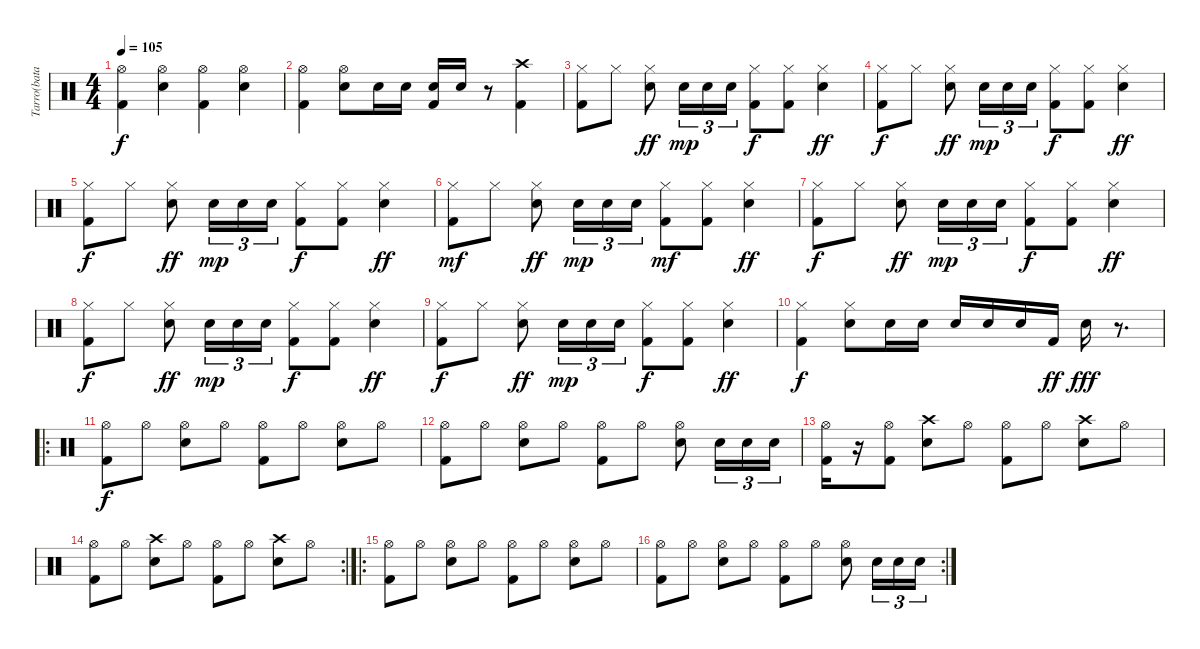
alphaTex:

\track ("Tarro(bataca)" "Tarro(bata") {instrument percussion}
\staff {score}
\articulation defaults
\ts (4 4)
\tempo 105
\clef neutral
\ks c
("Hi-Hat (open)" "Kick (hit) 2").4{dy f} ("Hi-Hat (open)" "Snare (hit) 2").4 ("Hi-Hat (open)" "Kick (hit) 2").4 ("Hi-Hat (open)" "Snare (hit) 2").4 |
("Hi-Hat (open)" "Kick (hit) 2").4 ("Hi-Hat (open)" "Snare (hit) 2").8 "Snare (hit) 2".16 "Snare (hit) 2".16 ("Snare (hit) 2" "Kick (hit) 2").16 "Snare (hit) 2".16 r.8 ("Crash high (hit)" "Kick (hit) 2").4 |
("Hi-Hat (closed)" "Kick (hit) 2").8 "Hi-Hat (closed)".8 ("Hi-Hat (closed)" "Snare (hit) 2").8{dy ff} "Snare (hit) 2".16{tu (3 2) dy mp} "Snare (hit) 2".16{tu (3 2)} "Snare (hit) 2".16{tu (3 2)} ("Hi-Hat (closed)" "Kick (hit) 2").8{dy f} ("Hi-Hat (closed)" "Kick (hit) 2").8 ("Hi-Hat (closed)" "Snare (hit) 2").4{dy ff} |
("Hi-Hat (closed)" "Kick (hit) 2").8{dy f} "Hi-Hat (closed)".8 ("Hi-Hat (closed)" "Snare (hit) 2").8{dy ff} "Snare (hit) 2".16{tu (3 2) dy mp} "Snare (hit) 2".16{tu (3 2)} "Snare (hit) 2".16{tu (3 2)} ("Hi-Hat (closed)" "Kick (hit) 2").8{dy f} ("Hi-Hat (closed)" "Kick (hit) 2").8 ("Hi-Hat (closed)" "Snare (hit) 2").4{dy ff} |
("Hi-Hat (closed)" "Kick (hit) 2").8{dy f} "Hi-Hat (closed)".8 ("Hi-Hat (closed)" "Snare (hit) 2").8{dy ff} "Snare (hit) 2".16{tu (3 2) dy mp} "Snare (hit) 2".16{tu (3 2)} "Snare (hit) 2".16{tu (3 2)} ("Hi-Hat (closed)" "Kick (hit) 2").8{dy f} ("Hi-Hat (closed)" "Kick (hit) 2").8 ("Hi-Hat (closed)" "Snare (hit) 2").4{dy ff} |
("Hi-Hat (closed)" "Kick (hit) 2").8{dy mf} "Hi-Hat (closed)".8 ("Hi-Hat (closed)" "Snare (hit) 2").8{dy ff} "Snare (hit) 2".16{tu (3 2) dy mp} "Snare (hit) 2".16{tu (3 2)} "Snare (hit) 2".16{tu (3 2)} ("Hi-Hat (closed)" "Kick (hit) 2").8{dy mf} ("Hi-Hat (closed)" "Kick (hit) 2").8 ("Hi-Hat (closed)" "Snare (hit) 2").4{dy ff} |
("Hi-Hat (closed)" "Kick (hit) 2").8{dy f} "Hi-Hat (closed)".8 ("Hi-Hat (closed)" "Snare (hit) 2").8{dy ff} "Snare (hit) 2".16{tu (3 2) dy mp} "Snare (hit) 2".16{tu (3 2)} "Snare (hit) 2".16{tu (3 2)} ("Hi-Hat (closed)" "Kick (hit) 2").8{dy f} ("Hi-Hat (closed)" "Kick (hit) 2").8 ("Hi-Hat (closed)" "Snare (hit) 2").4{dy ff} |
("Hi-Hat (closed)" "Kick (hit) 2").8{dy f} "Hi-Hat (closed)".8 ("Hi-Hat (closed)" "Snare (hit) 2").8{dy ff} "Snare (hit) 2".16{tu (3 2) dy mp} "Snare (hit) 2".16{tu (3 2)} "Snare (hit) 2".16{tu (3 2)} ("Hi-Hat (closed)" "Kick (hit) 2").8{dy f} ("Hi-Hat (closed)" "Kick (hit) 2").8 ("Hi-Hat (closed)" "Snare (hit) 2").4{dy ff} |
("Hi-Hat (closed)" "Kick (hit) 2").8{dy f} "Hi-Hat (closed)".8 ("Hi-Hat (closed)" "Snare (hit) 2").8{dy ff} "Snare (hit) 2".16{tu (3 2) dy mp} "Snare (hit) 2".16{tu (3 2)} "Snare (hit) 2".16{tu (3 2)} ("Hi-Hat (closed)" "Kick (hit) 2").8{dy f} ("Hi-Hat (closed)" "Kick (hit) 2").8 ("Hi-Hat (closed)" "Snare (hit) 2").4{dy ff} |
("Hi-Hat (closed)" "Kick (hit) 2").4{dy f} ("Hi-Hat (closed)" "Snare (hit) 2").8 "Snare (hit) 2".16 "Snare (hit) 2".16 "Snare (hit) 2".16 "Snare (hit) 2".16 "Snare (hit) 2".16 "Kick (hit) 2".16{dy ff} "Snare (hit) 2".16{dy fff} r.8{d} |
\ro
("Hi-Hat (open)" "Kick (hit) 2").8{dy f} "Hi-Hat (open)".8 ("Hi-Hat (open)" "Snare (hit) 2").8 "Hi-Hat (open)".8 ("Hi-Hat (open)" "Kick (hit) 2").8 "Hi-Hat (open)".8 ("Hi-Hat (open)" "Snare (hit) 2").8 "Hi-Hat (open)".8 |
("Hi-Hat (open)" "Kick (hit) 2").8 "Hi-Hat (open)".8 ("Hi-Hat (open)" "Snare (hit) 2").8 "Hi-Hat (open)".8 ("Hi-Hat (open)" "Kick (hit) 2").8 "Hi-Hat (open)".8 ("Hi-Hat (open)" "Snare (hit) 2").8 "Snare (hit) 2".16{tu (3 2)} "Snare (hit) 2".16{tu (3 2)} "Snare (hit) 2".16{tu (3 2)} |
("Hi-Hat (open)" "Kick (hit) 2").16 r.16 ("Hi-Hat (open)" "Kick (hit) 2").8 ("Crash high (hit)" "Snare (hit) 2").8 "Hi-Hat (open)".8 ("Hi-Hat (open)" "Kick (hit) 2").8 "Hi-Hat (open)".8 ("Crash high (hit)" "Snare (hit) 2").8 "Hi-Hat (open)".8 |
\rc 2
("Hi-Hat (open)" "Kick (hit) 2").8 "Hi-Hat (open)".8 ("Crash high (hit)" "Snare (hit) 2").8 "Hi-Hat (open)".8 ("Hi-Hat (open)" "Kick (hit) 2").8 "Hi-Hat (open)".8 ("Crash high (hit)" "Snare (hit) 2").8 "Hi-Hat (open)".8 |
\ro
("Hi-Hat (open)" "Kick (hit) 2").8 "Hi-Hat (open)".8 ("Hi-Hat (open)" "Snare (hit) 2").8 "Hi-Hat (open)".8 ("Hi-Hat (open)" "Kick (hit) 2").8 "Hi-Hat (open)".8 ("Hi-Hat (open)" "Snare (hit) 2").8 "Hi-Hat (open)".8 |
\rc 2
("Hi-Hat (open)" "Kick (hit) 2").8 "Hi-Hat (open)".8 ("Hi-Hat (open)" "Snare (hit) 2").8 "Hi-Hat (open)".8 ("Hi-Hat (open)" "Kick (hit) 2").8 "Hi-Hat (open)".8 ("Hi-Hat (open)" "Snare (hit) 2").8 "Snare (hit) 2".16{tu (3 2)} "Snare (hit) 2".16{tu (3 2)} "Snare (hit) 2".16{tu (3 2)}
